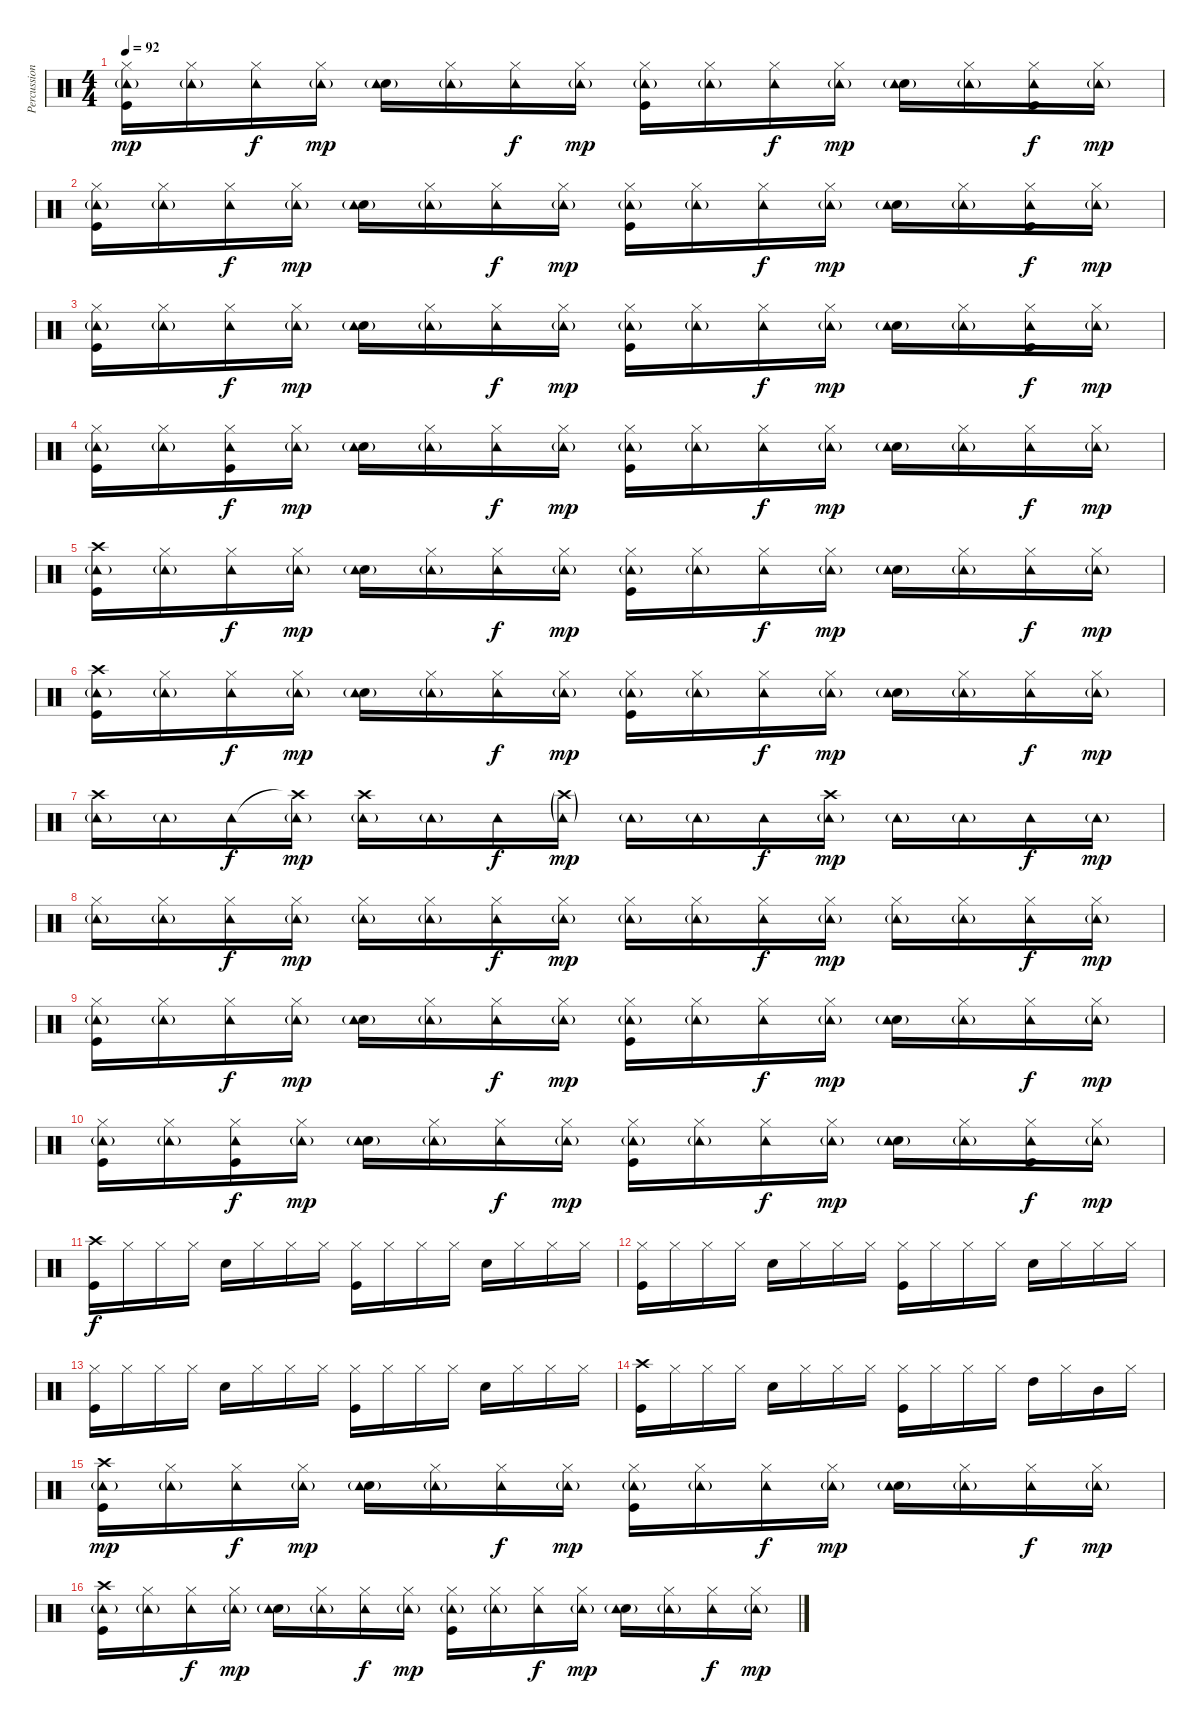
\track ("Percussion" "Percussion") {instrument percussion}
\staff {score}
\articulation defaults
\ts (4 4)
\tempo 92
\clef neutral
\ks c
("Hi-Hat (closed)" "Kick (hit)" "Tambourine (hit)"{g}).16{dy mp} ("Hi-Hat (closed)" "Tambourine (hit)"{g}).16 ("Hi-Hat (closed)" "Tambourine (hit)").16{dy f} ("Hi-Hat (closed)" "Tambourine (hit)"{g}).16{dy mp} ("Snare (hit) 2" "Tambourine (hit)"{g}).16 ("Hi-Hat (closed)" "Tambourine (hit)"{g}).16 ("Hi-Hat (closed)" "Tambourine (hit)").16{dy f} ("Hi-Hat (closed)" "Tambourine (hit)"{g}).16{dy mp} ("Hi-Hat (closed)" "Kick (hit)" "Tambourine (hit)"{g}).16 ("Hi-Hat (closed)" "Tambourine (hit)"{g}).16 ("Hi-Hat (closed)" "Tambourine (hit)").16{dy f} ("Hi-Hat (closed)" "Tambourine (hit)"{g}).16{dy mp} ("Snare (hit) 2" "Tambourine (hit)"{g}).16 ("Hi-Hat (closed)" "Tambourine (hit)"{g}).16 ("Hi-Hat (closed)" "Kick (hit)" "Tambourine (hit)").16{dy f} ("Hi-Hat (closed)" "Tambourine (hit)"{g}).16{dy mp} |
("Hi-Hat (closed)" "Kick (hit)" "Tambourine (hit)"{g}).16 ("Hi-Hat (closed)" "Tambourine (hit)"{g}).16 ("Hi-Hat (closed)" "Tambourine (hit)").16{dy f} ("Hi-Hat (closed)" "Tambourine (hit)"{g}).16{dy mp} ("Snare (hit) 2" "Tambourine (hit)"{g}).16 ("Hi-Hat (closed)" "Tambourine (hit)"{g}).16 ("Hi-Hat (closed)" "Tambourine (hit)").16{dy f} ("Hi-Hat (closed)" "Tambourine (hit)"{g}).16{dy mp} ("Hi-Hat (closed)" "Kick (hit)" "Tambourine (hit)"{g}).16 ("Hi-Hat (closed)" "Tambourine (hit)"{g}).16 ("Hi-Hat (closed)" "Tambourine (hit)").16{dy f} ("Hi-Hat (closed)" "Tambourine (hit)"{g}).16{dy mp} ("Snare (hit) 2" "Tambourine (hit)"{g}).16 ("Hi-Hat (closed)" "Tambourine (hit)"{g}).16 ("Hi-Hat (closed)" "Kick (hit)" "Tambourine (hit)").16{dy f} ("Hi-Hat (closed)" "Tambourine (hit)"{g}).16{dy mp} |
("Hi-Hat (closed)" "Kick (hit)" "Tambourine (hit)"{g}).16 ("Hi-Hat (closed)" "Tambourine (hit)"{g}).16 ("Hi-Hat (closed)" "Tambourine (hit)").16{dy f} ("Hi-Hat (closed)" "Tambourine (hit)"{g}).16{dy mp} ("Snare (hit) 2" "Tambourine (hit)"{g}).16 ("Hi-Hat (closed)" "Tambourine (hit)"{g}).16 ("Hi-Hat (closed)" "Tambourine (hit)").16{dy f} ("Hi-Hat (closed)" "Tambourine (hit)"{g}).16{dy mp} ("Hi-Hat (closed)" "Kick (hit)" "Tambourine (hit)"{g}).16 ("Hi-Hat (closed)" "Tambourine (hit)"{g}).16 ("Hi-Hat (closed)" "Tambourine (hit)").16{dy f} ("Hi-Hat (closed)" "Tambourine (hit)"{g}).16{dy mp} ("Snare (hit) 2" "Tambourine (hit)"{g}).16 ("Hi-Hat (closed)" "Tambourine (hit)"{g}).16 ("Hi-Hat (closed)" "Kick (hit)" "Tambourine (hit)").16{dy f} ("Hi-Hat (closed)" "Tambourine (hit)"{g}).16{dy mp} |
("Hi-Hat (closed)" "Kick (hit)" "Tambourine (hit)"{g}).16 ("Hi-Hat (closed)" "Tambourine (hit)"{g}).16 ("Hi-Hat (closed)" "Kick (hit)" "Tambourine (hit)").16{dy f} ("Hi-Hat (closed)" "Tambourine (hit)"{g}).16{dy mp} ("Snare (hit) 2" "Tambourine (hit)"{g}).16 ("Hi-Hat (closed)" "Tambourine (hit)"{g}).16 ("Hi-Hat (closed)" "Tambourine (hit)").16{dy f} ("Hi-Hat (closed)" "Tambourine (hit)"{g}).16{dy mp} ("Hi-Hat (closed)" "Kick (hit)" "Tambourine (hit)"{g}).16 ("Hi-Hat (closed)" "Tambourine (hit)"{g}).16 ("Hi-Hat (closed)" "Tambourine (hit)").16{dy f} ("Hi-Hat (closed)" "Tambourine (hit)"{g}).16{dy mp} ("Snare (hit) 2" "Tambourine (hit)"{g}).16 ("Hi-Hat (closed)" "Tambourine (hit)"{g}).16 ("Hi-Hat (closed)" "Tambourine (hit)").16{dy f} ("Hi-Hat (closed)" "Tambourine (hit)"{g}).16{dy mp} |
("Crash high (hit)" "Kick (hit)" "Tambourine (hit)"{g}).16 ("Hi-Hat (closed)" "Tambourine (hit)"{g}).16 ("Hi-Hat (closed)" "Tambourine (hit)").16{dy f} ("Hi-Hat (closed)" "Tambourine (hit)"{g}).16{dy mp} ("Snare (hit) 2" "Tambourine (hit)"{g}).16 ("Hi-Hat (closed)" "Tambourine (hit)"{g}).16 ("Hi-Hat (closed)" "Tambourine (hit)").16{dy f} ("Hi-Hat (closed)" "Tambourine (hit)"{g}).16{dy mp} ("Hi-Hat (closed)" "Kick (hit)" "Tambourine (hit)"{g}).16 ("Hi-Hat (closed)" "Tambourine (hit)"{g}).16 ("Hi-Hat (closed)" "Tambourine (hit)").16{dy f} ("Hi-Hat (closed)" "Tambourine (hit)"{g}).16{dy mp} ("Snare (hit) 2" "Tambourine (hit)"{g}).16 ("Hi-Hat (closed)" "Tambourine (hit)"{g}).16 ("Hi-Hat (closed)" "Tambourine (hit)").16{dy f} ("Hi-Hat (closed)" "Tambourine (hit)"{g}).16{dy mp} |
("Crash high (hit)" "Kick (hit)" "Tambourine (hit)"{g}).16 ("Hi-Hat (closed)" "Tambourine (hit)"{g}).16 ("Hi-Hat (closed)" "Tambourine (hit)").16{dy f} ("Hi-Hat (closed)" "Tambourine (hit)"{g}).16{dy mp} ("Snare (hit) 2" "Tambourine (hit)"{g}).16 ("Hi-Hat (closed)" "Tambourine (hit)"{g}).16 ("Hi-Hat (closed)" "Tambourine (hit)").16{dy f} ("Hi-Hat (closed)" "Tambourine (hit)"{g}).16{dy mp} ("Hi-Hat (closed)" "Kick (hit)" "Tambourine (hit)"{g}).16 ("Hi-Hat (closed)" "Tambourine (hit)"{g}).16 ("Hi-Hat (closed)" "Tambourine (hit)").16{dy f} ("Hi-Hat (closed)" "Tambourine (hit)"{g}).16{dy mp} ("Snare (hit) 2" "Tambourine (hit)"{g}).16 ("Hi-Hat (closed)" "Tambourine (hit)"{g}).16 ("Hi-Hat (closed)" "Tambourine (hit)").16{dy f} ("Hi-Hat (closed)" "Tambourine (hit)"{g}).16{dy mp} |
("Crash high (hit)" "Tambourine (hit)"{g}).16 "Tambourine (hit)"{g}.16 "Tambourine (hit)".16{dy f} ("Crash high (hit)"{t} "Tambourine (hit)"{g}).16{dy mp} ("Crash high (hit)" "Tambourine (hit)"{g}).16 "Tambourine (hit)"{g}.16 "Tambourine (hit)".16{dy f} ("Crash high (hit)"{g} "Tambourine (hit)"{g}).16{dy mp} "Tambourine (hit)"{g}.16 "Tambourine (hit)"{g}.16 "Tambourine (hit)".16{dy f} ("Crash high (hit)" "Tambourine (hit)"{g}).16{dy mp} "Tambourine (hit)"{g}.16 "Tambourine (hit)"{g}.16 "Tambourine (hit)".16{dy f} "Tambourine (hit)"{g}.16{dy mp} |
("Hi-Hat (closed)" "Tambourine (hit)"{g}).16 ("Hi-Hat (closed)" "Tambourine (hit)"{g}).16 ("Hi-Hat (closed)" "Tambourine (hit)").16{dy f} ("Hi-Hat (closed)" "Tambourine (hit)"{g}).16{dy mp} ("Hi-Hat (closed)" "Tambourine (hit)"{g}).16 ("Hi-Hat (closed)" "Tambourine (hit)"{g}).16 ("Hi-Hat (closed)" "Tambourine (hit)").16{dy f} ("Hi-Hat (closed)" "Tambourine (hit)"{g}).16{dy mp} ("Hi-Hat (closed)" "Tambourine (hit)"{g}).16 ("Hi-Hat (closed)" "Tambourine (hit)"{g}).16 ("Hi-Hat (closed)" "Tambourine (hit)").16{dy f} ("Hi-Hat (closed)" "Tambourine (hit)"{g}).16{dy mp} ("Hi-Hat (closed)" "Tambourine (hit)"{g}).16 ("Hi-Hat (closed)" "Tambourine (hit)"{g}).16 ("Hi-Hat (closed)" "Tambourine (hit)").16{dy f} ("Hi-Hat (closed)" "Tambourine (hit)"{g}).16{dy mp} |
("Hi-Hat (closed)" "Kick (hit)" "Tambourine (hit)"{g}).16 ("Hi-Hat (closed)" "Tambourine (hit)"{g}).16 ("Hi-Hat (closed)" "Tambourine (hit)").16{dy f} ("Hi-Hat (closed)" "Tambourine (hit)"{g}).16{dy mp} ("Snare (hit) 2" "Tambourine (hit)"{g}).16 ("Hi-Hat (closed)" "Tambourine (hit)"{g}).16 ("Hi-Hat (closed)" "Tambourine (hit)").16{dy f} ("Hi-Hat (closed)" "Tambourine (hit)"{g}).16{dy mp} ("Hi-Hat (closed)" "Kick (hit)" "Tambourine (hit)"{g}).16 ("Hi-Hat (closed)" "Tambourine (hit)"{g}).16 ("Hi-Hat (closed)" "Tambourine (hit)").16{dy f} ("Hi-Hat (closed)" "Tambourine (hit)"{g}).16{dy mp} ("Snare (hit) 2" "Tambourine (hit)"{g}).16 ("Hi-Hat (closed)" "Tambourine (hit)"{g}).16 ("Hi-Hat (closed)" "Tambourine (hit)").16{dy f} ("Hi-Hat (closed)" "Tambourine (hit)"{g}).16{dy mp} |
("Hi-Hat (closed)" "Kick (hit)" "Tambourine (hit)"{g}).16 ("Hi-Hat (closed)" "Tambourine (hit)"{g}).16 ("Hi-Hat (closed)" "Kick (hit)" "Tambourine (hit)").16{dy f} ("Hi-Hat (closed)" "Tambourine (hit)"{g}).16{dy mp} ("Snare (hit) 2" "Tambourine (hit)"{g}).16 ("Hi-Hat (closed)" "Tambourine (hit)"{g}).16 ("Hi-Hat (closed)" "Tambourine (hit)").16{dy f} ("Hi-Hat (closed)" "Tambourine (hit)"{g}).16{dy mp} ("Hi-Hat (closed)" "Kick (hit)" "Tambourine (hit)"{g}).16 ("Hi-Hat (closed)" "Tambourine (hit)"{g}).16 ("Hi-Hat (closed)" "Tambourine (hit)").16{dy f} ("Hi-Hat (closed)" "Tambourine (hit)"{g}).16{dy mp} ("Snare (hit) 2" "Tambourine (hit)"{g}).16 ("Hi-Hat (closed)" "Tambourine (hit)"{g}).16 ("Hi-Hat (closed)" "Kick (hit)" "Tambourine (hit)").16{dy f} ("Hi-Hat (closed)" "Tambourine (hit)"{g}).16{dy mp} |
("Crash high (hit)" "Kick (hit)").16{dy f} "Hi-Hat (closed)".16 "Hi-Hat (closed)".16 "Hi-Hat (closed)".16 "Electric Snare (hit)".16 "Hi-Hat (closed)".16 "Hi-Hat (closed)".16 "Hi-Hat (closed)".16 ("Hi-Hat (closed)" "Kick (hit)").16 "Hi-Hat (closed)".16 "Hi-Hat (closed)".16 "Hi-Hat (closed)".16 "Electric Snare (hit)".16 "Hi-Hat (closed)".16 "Hi-Hat (closed)".16 "Hi-Hat (closed)".16 |
("Hi-Hat (closed)" "Kick (hit)").16 "Hi-Hat (closed)".16 "Hi-Hat (closed)".16 "Hi-Hat (closed)".16 "Electric Snare (hit)".16 "Hi-Hat (closed)".16 "Hi-Hat (closed)".16 "Hi-Hat (closed)".16 ("Hi-Hat (closed)" "Kick (hit)").16 "Hi-Hat (closed)".16 "Hi-Hat (closed)".16 "Hi-Hat (closed)".16 "Electric Snare (hit)".16 "Hi-Hat (closed)".16 "Hi-Hat (closed)".16 "Hi-Hat (closed)".16 |
("Hi-Hat (closed)" "Kick (hit)").16 "Hi-Hat (closed)".16 "Hi-Hat (closed)".16 "Hi-Hat (closed)".16 "Electric Snare (hit)".16 "Hi-Hat (closed)".16 "Hi-Hat (closed)".16 "Hi-Hat (closed)".16 ("Hi-Hat (closed)" "Kick (hit)").16 "Hi-Hat (closed)".16 "Hi-Hat (closed)".16 "Hi-Hat (closed)".16 "Electric Snare (hit)".16 "Hi-Hat (closed)".16 "Hi-Hat (closed)".16 "Hi-Hat (closed)".16 |
("Crash high (hit)" "Kick (hit)").16 "Hi-Hat (closed)".16 "Hi-Hat (closed)".16 "Hi-Hat (closed)".16 "Electric Snare (hit)".16 "Hi-Hat (closed)".16 "Hi-Hat (closed)".16 "Hi-Hat (closed)".16 ("Hi-Hat (closed)" "Kick (hit)").16 "Hi-Hat (closed)".16 "Hi-Hat (closed)".16 "Hi-Hat (closed)".16 "High Tom (hit)".16 "Hi-Hat (closed)".16 "Mid Tom (hit)".16 "Hi-Hat (closed)".16 |
("Crash high (hit)" "Kick (hit)" "Tambourine (hit)"{g}).16{dy mp} ("Hi-Hat (closed)" "Tambourine (hit)"{g}).16 ("Hi-Hat (closed)" "Tambourine (hit)").16{dy f} ("Hi-Hat (closed)" "Tambourine (hit)"{g}).16{dy mp} ("Snare (hit) 2" "Tambourine (hit)"{g}).16 ("Hi-Hat (closed)" "Tambourine (hit)"{g}).16 ("Hi-Hat (closed)" "Tambourine (hit)").16{dy f} ("Hi-Hat (closed)" "Tambourine (hit)"{g}).16{dy mp} ("Hi-Hat (closed)" "Kick (hit)" "Tambourine (hit)"{g}).16 ("Hi-Hat (closed)" "Tambourine (hit)"{g}).16 ("Hi-Hat (closed)" "Tambourine (hit)").16{dy f} ("Hi-Hat (closed)" "Tambourine (hit)"{g}).16{dy mp} ("Snare (hit) 2" "Tambourine (hit)"{g}).16 ("Hi-Hat (closed)" "Tambourine (hit)"{g}).16 ("Hi-Hat (closed)" "Tambourine (hit)").16{dy f} ("Hi-Hat (closed)" "Tambourine (hit)"{g}).16{dy mp} |
("Crash high (hit)" "Kick (hit)" "Tambourine (hit)"{g}).16 ("Hi-Hat (closed)" "Tambourine (hit)"{g}).16 ("Hi-Hat (closed)" "Tambourine (hit)").16{dy f} ("Hi-Hat (closed)" "Tambourine (hit)"{g}).16{dy mp} ("Snare (hit) 2" "Tambourine (hit)"{g}).16 ("Hi-Hat (closed)" "Tambourine (hit)"{g}).16 ("Hi-Hat (closed)" "Tambourine (hit)").16{dy f} ("Hi-Hat (closed)" "Tambourine (hit)"{g}).16{dy mp} ("Hi-Hat (closed)" "Kick (hit)" "Tambourine (hit)"{g}).16 ("Hi-Hat (closed)" "Tambourine (hit)"{g}).16 ("Hi-Hat (closed)" "Tambourine (hit)").16{dy f} ("Hi-Hat (closed)" "Tambourine (hit)"{g}).16{dy mp} ("Snare (hit) 2" "Tambourine (hit)"{g}).16 ("Hi-Hat (closed)" "Tambourine (hit)"{g}).16 ("Hi-Hat (closed)" "Tambourine (hit)").16{dy f} ("Hi-Hat (closed)" "Tambourine (hit)"{g}).16{dy mp}
